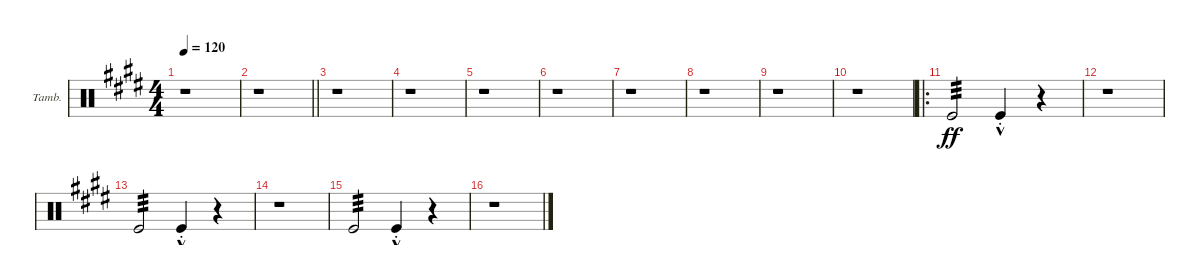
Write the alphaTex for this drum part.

\defaultSystemsLayout 4
\bracketExtendMode groupsimilarinstruments
\firstSystemTrackNameOrientation horizontal
\otherSystemsTrackNameOrientation horizontal
\track ("Tambourine" "Tamb.") {instrument percussion}
\staff {score}
\articulation defaults
\ts (4 4)
\tempo 120
\clef neutral
\scale
0.333333
\ks e
r.1{dy ff} |
\scale
0.333333
\barLineRight lightlight
r.1 |
\scale
0.333333 r.1 |
\scale
0.333333 r.1 |
\scale
0.333333 r.1 |
\scale
0.333333 r.1 |
\scale
0.333333 r.1 |
\scale
0.333333 r.1 |
\scale
0.333333 r.1 |
\scale
0.311475 r.1 |
\ro
\scale
0.377049 "Kick (hit)".2{tp 3} "Kick (hit)"{hac st}.4 r.4 |
\scale
0.311475 r.1 |
\scale
0.333333 "Kick (hit)".2{tp 3} "Kick (hit)"{hac st}.4 r.4 |
\scale
0.333333 r.1 |
\scale
0.333333 "Kick (hit)".2{tp 3} "Kick (hit)"{hac st}.4 r.4 |
\scale
0.322034 r.1
